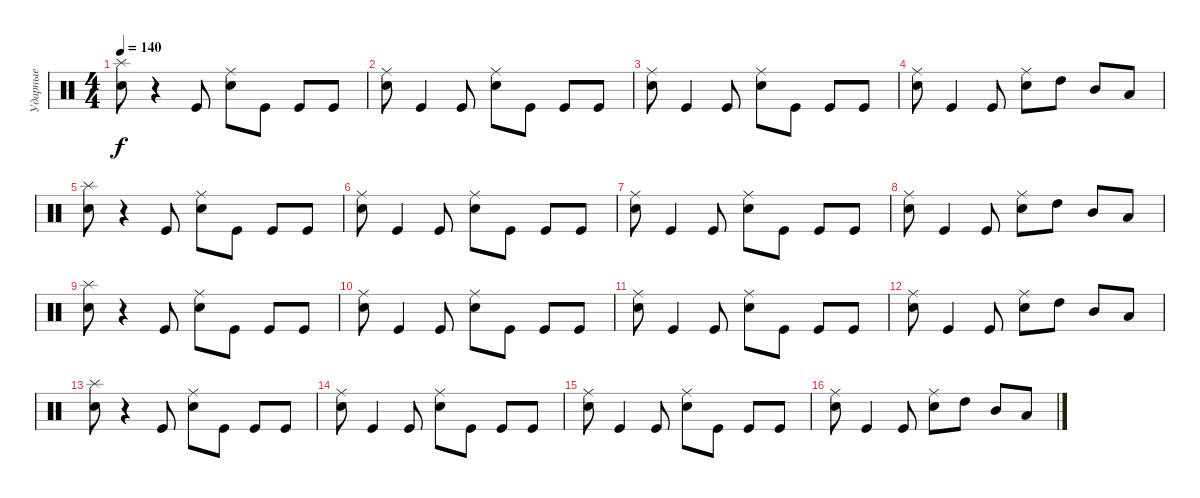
\track ("Ударные" "Ударные") {instrument percussion}
\staff {score}
\articulation defaults
\ts (4 4)
\tempo 140
\clef neutral
\ks c
("Electric Snare (hit)" "Splash (hit)").8{dy f} r.4 "Kick (hit)".8 ("Electric Snare (hit)" "Ride (middle)").8 "Kick (hit)".8 "Kick (hit)".8 "Kick (hit)".8 |
("Electric Snare (hit)" "Ride (middle)").8 "Kick (hit)".4 "Kick (hit)".8 ("Electric Snare (hit)" "Ride (middle)").8 "Kick (hit)".8 "Kick (hit)".8 "Kick (hit)".8 |
("Electric Snare (hit)" "Ride (middle)").8 "Kick (hit)".4 "Kick (hit)".8 ("Electric Snare (hit)" "Ride (middle)").8 "Kick (hit)".8 "Kick (hit)".8 "Kick (hit)".8 |
("Electric Snare (hit)" "Ride (middle)").8 "Kick (hit)".4 "Kick (hit)".8 ("Electric Snare (hit)" "Ride (middle)").8 "High Tom (hit)".8 "Mid Tom (hit)".8 "Low Tom (hit)".8 |
("Electric Snare (hit)" "Splash (hit)").8 r.4 "Kick (hit)".8 ("Electric Snare (hit)" "Ride (middle)").8 "Kick (hit)".8 "Kick (hit)".8 "Kick (hit)".8 |
("Electric Snare (hit)" "Ride (middle)").8 "Kick (hit)".4 "Kick (hit)".8 ("Electric Snare (hit)" "Ride (middle)").8 "Kick (hit)".8 "Kick (hit)".8 "Kick (hit)".8 |
("Electric Snare (hit)" "Ride (middle)").8 "Kick (hit)".4 "Kick (hit)".8 ("Electric Snare (hit)" "Ride (middle)").8 "Kick (hit)".8 "Kick (hit)".8 "Kick (hit)".8 |
("Electric Snare (hit)" "Ride (middle)").8 "Kick (hit)".4 "Kick (hit)".8 ("Electric Snare (hit)" "Ride (middle)").8 "High Tom (hit)".8 "Mid Tom (hit)".8 "Low Tom (hit)".8 |
("Electric Snare (hit)" "Splash (hit)").8 r.4 "Kick (hit)".8 ("Electric Snare (hit)" "Ride (middle)").8 "Kick (hit)".8 "Kick (hit)".8 "Kick (hit)".8 |
("Electric Snare (hit)" "Ride (middle)").8 "Kick (hit)".4 "Kick (hit)".8 ("Electric Snare (hit)" "Ride (middle)").8 "Kick (hit)".8 "Kick (hit)".8 "Kick (hit)".8 |
("Electric Snare (hit)" "Ride (middle)").8 "Kick (hit)".4 "Kick (hit)".8 ("Electric Snare (hit)" "Ride (middle)").8 "Kick (hit)".8 "Kick (hit)".8 "Kick (hit)".8 |
("Electric Snare (hit)" "Ride (middle)").8 "Kick (hit)".4 "Kick (hit)".8 ("Electric Snare (hit)" "Ride (middle)").8 "High Tom (hit)".8 "Mid Tom (hit)".8 "Low Tom (hit)".8 |
("Electric Snare (hit)" "Splash (hit)").8 r.4 "Kick (hit)".8 ("Electric Snare (hit)" "Ride (middle)").8 "Kick (hit)".8 "Kick (hit)".8 "Kick (hit)".8 |
("Electric Snare (hit)" "Ride (middle)").8 "Kick (hit)".4 "Kick (hit)".8 ("Electric Snare (hit)" "Ride (middle)").8 "Kick (hit)".8 "Kick (hit)".8 "Kick (hit)".8 |
("Electric Snare (hit)" "Ride (middle)").8 "Kick (hit)".4 "Kick (hit)".8 ("Electric Snare (hit)" "Ride (middle)").8 "Kick (hit)".8 "Kick (hit)".8 "Kick (hit)".8 |
("Electric Snare (hit)" "Ride (middle)").8 "Kick (hit)".4 "Kick (hit)".8 ("Electric Snare (hit)" "Ride (middle)").8 "High Tom (hit)".8 "Mid Tom (hit)".8 "Low Tom (hit)".8
